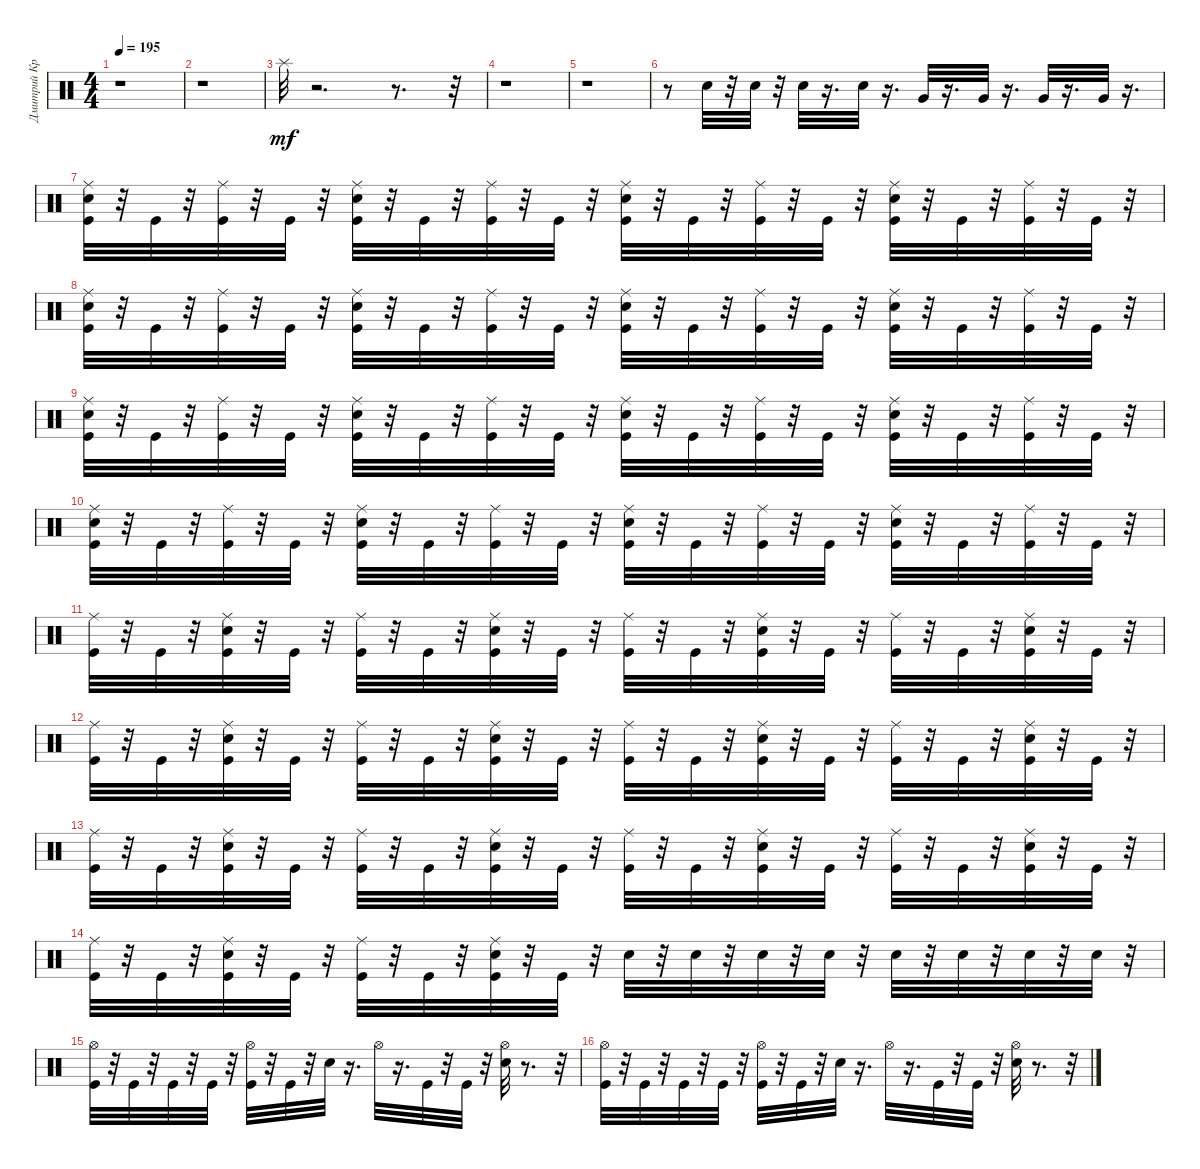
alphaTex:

\track ("Дмитрий Кривенков" "Дмитрий Кр") {instrument percussion}
\staff {score}
\articulation defaults
\ts (4 4)
\tempo 195
\clef neutral
\ks c
r.1{dy mf} |
r.1 |
"Splash (hit)".32 r.2{d} r.8{d} r.32 |
r.1 |
r.1 |
r.8 "Electric Snare (hit)".32 r.32 "Electric Snare (hit)".32 r.32 "Electric Snare (hit)".32 r.16{d} "Electric Snare (hit)".32 r.16{d} "Very Low Tom (hit)".32 r.16{d} "Very Low Tom (hit)".32 r.16{d} "Very Low Tom (hit)".32 r.16{d} "Very Low Tom (hit)".32 r.16{d} |
("Ride (middle)" "Electric Snare (hit)" "Kick (hit)").32 r.32 "Kick (hit)".32 r.32 ("Ride (middle)" "Kick (hit)").32 r.32 "Kick (hit)".32 r.32 ("Ride (middle)" "Kick (hit)" "Electric Snare (hit)").32 r.32 "Kick (hit)".32 r.32 ("Ride (middle)" "Kick (hit)").32 r.32 "Kick (hit)".32 r.32 ("Ride (middle)" "Electric Snare (hit)" "Kick (hit)").32 r.32 "Kick (hit)".32 r.32 ("Kick (hit)" "Ride (middle)").32 r.32 "Kick (hit)".32 r.32 ("Ride (middle)" "Electric Snare (hit)" "Kick (hit)").32 r.32 "Kick (hit)".32 r.32 ("Ride (middle)" "Kick (hit)").32 r.32 "Kick (hit)".32 r.32 |
("Ride (middle)" "Electric Snare (hit)" "Kick (hit)").32 r.32 "Kick (hit)".32 r.32 ("Kick (hit)" "Ride (middle)").32 r.32 "Kick (hit)".32 r.32 ("Ride (middle)" "Electric Snare (hit)" "Kick (hit)").32 r.32 "Kick (hit)".32 r.32 ("Kick (hit)" "Ride (middle)").32 r.32 "Kick (hit)".32 r.32 ("Electric Snare (hit)" "Ride (middle)" "Kick (hit)").32 r.32 "Kick (hit)".32 r.32 ("Ride (middle)" "Kick (hit)").32 r.32 "Kick (hit)".32 r.32 ("Electric Snare (hit)" "Kick (hit)" "Ride (middle)").32 r.32 "Kick (hit)".32 r.32 ("Ride (middle)" "Kick (hit)").32 r.32 "Kick (hit)".32 r.32 |
("Ride (middle)" "Electric Snare (hit)" "Kick (hit)").32 r.32 "Kick (hit)".32 r.32 ("Kick (hit)" "Ride (middle)").32 r.32 "Kick (hit)".32 r.32 ("Ride (middle)" "Electric Snare (hit)" "Kick (hit)").32 r.32 "Kick (hit)".32 r.32 ("Kick (hit)" "Ride (middle)").32 r.32 "Kick (hit)".32 r.32 ("Electric Snare (hit)" "Ride (middle)" "Kick (hit)").32 r.32 "Kick (hit)".32 r.32 ("Ride (middle)" "Kick (hit)").32 r.32 "Kick (hit)".32 r.32 ("Electric Snare (hit)" "Kick (hit)" "Ride (middle)").32 r.32 "Kick (hit)".32 r.32 ("Ride (middle)" "Kick (hit)").32 r.32 "Kick (hit)".32 r.32 |
("Ride (middle)" "Electric Snare (hit)" "Kick (hit)").32 r.32 "Kick (hit)".32 r.32 ("Kick (hit)" "Ride (middle)").32 r.32 "Kick (hit)".32 r.32 ("Ride (middle)" "Electric Snare (hit)" "Kick (hit)").32 r.32 "Kick (hit)".32 r.32 ("Kick (hit)" "Ride (middle)").32 r.32 "Kick (hit)".32 r.32 ("Electric Snare (hit)" "Ride (middle)" "Kick (hit)").32 r.32 "Kick (hit)".32 r.32 ("Ride (middle)" "Kick (hit)").32 r.32 "Kick (hit)".32 r.32 ("Electric Snare (hit)" "Kick (hit)" "Ride (middle)").32 r.32 "Kick (hit)".32 r.32 ("Ride (middle)" "Kick (hit)").32 r.32 "Kick (hit)".32 r.32 |
("Ride (middle)" "Kick (hit)").32 r.32 "Kick (hit)".32 r.32 ("Ride (middle)" "Kick (hit)" "Electric Snare (hit)").32 r.32 "Kick (hit)".32 r.32 ("Ride (middle)" "Kick (hit)").32 r.32 "Kick (hit)".32 r.32 ("Ride (middle)" "Kick (hit)" "Electric Snare (hit)").32 r.32 "Kick (hit)".32 r.32 ("Kick (hit)" "Ride (middle)").32 r.32 "Kick (hit)".32 r.32 ("Electric Snare (hit)" "Ride (middle)" "Kick (hit)").32 r.32 "Kick (hit)".32 r.32 ("Kick (hit)" "Ride (middle)").32 r.32 "Kick (hit)".32 r.32 ("Ride (middle)" "Electric Snare (hit)" "Kick (hit)").32 r.32 "Kick (hit)".32 r.32 |
("Ride (middle)" "Kick (hit)").32 r.32 "Kick (hit)".32 r.32 ("Ride (middle)" "Kick (hit)" "Electric Snare (hit)").32 r.32 "Kick (hit)".32 r.32 ("Ride (middle)" "Kick (hit)").32 r.32 "Kick (hit)".32 r.32 ("Ride (middle)" "Kick (hit)" "Electric Snare (hit)").32 r.32 "Kick (hit)".32 r.32 ("Kick (hit)" "Ride (middle)").32 r.32 "Kick (hit)".32 r.32 ("Electric Snare (hit)" "Ride (middle)" "Kick (hit)").32 r.32 "Kick (hit)".32 r.32 ("Kick (hit)" "Ride (middle)").32 r.32 "Kick (hit)".32 r.32 ("Ride (middle)" "Electric Snare (hit)" "Kick (hit)").32 r.32 "Kick (hit)".32 r.32 |
("Ride (middle)" "Kick (hit)").32 r.32 "Kick (hit)".32 r.32 ("Ride (middle)" "Kick (hit)" "Electric Snare (hit)").32 r.32 "Kick (hit)".32 r.32 ("Ride (middle)" "Kick (hit)").32 r.32 "Kick (hit)".32 r.32 ("Ride (middle)" "Kick (hit)" "Electric Snare (hit)").32 r.32 "Kick (hit)".32 r.32 ("Kick (hit)" "Ride (middle)").32 r.32 "Kick (hit)".32 r.32 ("Electric Snare (hit)" "Ride (middle)" "Kick (hit)").32 r.32 "Kick (hit)".32 r.32 ("Kick (hit)" "Ride (middle)").32 r.32 "Kick (hit)".32 r.32 ("Ride (middle)" "Electric Snare (hit)" "Kick (hit)").32 r.32 "Kick (hit)".32 r.32 |
("Ride (middle)" "Kick (hit)").32 r.32 "Kick (hit)".32 r.32 ("Ride (middle)" "Electric Snare (hit)" "Kick (hit)").32 r.32 "Kick (hit)".32 r.32 ("Kick (hit)" "Ride (middle)").32 r.32 "Kick (hit)".32 r.32 ("Ride (middle)" "Electric Snare (hit)" "Kick (hit)").32 r.32 "Kick (hit)".32 r.32 "Electric Snare (hit)".32 r.32 "Electric Snare (hit)".32 r.32 "Electric Snare (hit)".32 r.32 "Electric Snare (hit)".32 r.32 "Electric Snare (hit)".32 r.32 "Electric Snare (hit)".32 r.32 "Electric Snare (hit)".32 r.32 "Electric Snare (hit)".32 r.32 |
("Kick (hit)" "Hi-Hat (open)").32 r.32 "Kick (hit)".32 r.32 "Kick (hit)".32 r.32 "Kick (hit)".32 r.32 ("Kick (hit)" "Hi-Hat (open)").32 r.32 "Kick (hit)".32 r.32 "Electric Snare (hit)".32 r.16{d} "Hi-Hat (open)".32 r.16{d} "Kick (hit)".32 r.32 "Kick (hit)".32 r.32 ("Hi-Hat (open)" "Electric Snare (hit)").32 r.8{d} r.32 |
("Kick (hit)" "Hi-Hat (open)").32 r.32 "Kick (hit)".32 r.32 "Kick (hit)".32 r.32 "Kick (hit)".32 r.32 ("Kick (hit)" "Hi-Hat (open)").32 r.32 "Kick (hit)".32 r.32 "Electric Snare (hit)".32 r.16{d} "Hi-Hat (open)".32 r.16{d} "Kick (hit)".32 r.32 "Kick (hit)".32 r.32 ("Electric Snare (hit)" "Hi-Hat (open)").32 r.8{d} r.32
